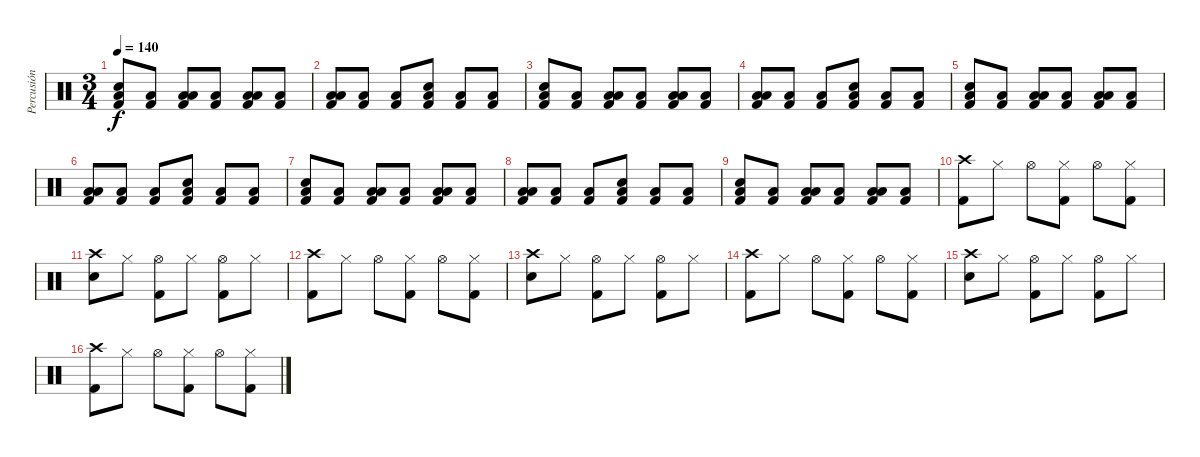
\track ("Percusión" "Percusión") {instrument percussion}
\staff {score}
\articulation defaults
\ts (3 4)
\tempo 140
\clef neutral
\ks c
("Electric Snare (hit)" "Low Floor Tom (hit)" "Kick (hit) 2").8{dy f} ("Low Floor Tom (hit)" "Kick (hit) 2").8 ("Low Tom (hit)" "Low Floor Tom (hit)" "Kick (hit) 2").8 ("Low Floor Tom (hit)" "Kick (hit) 2").8 ("Low Tom (hit)" "Low Floor Tom (hit)" "Kick (hit) 2").8 ("Low Floor Tom (hit)" "Kick (hit) 2").8 |
("Low Tom (hit)" "Low Floor Tom (hit)" "Kick (hit) 2").8 ("Low Floor Tom (hit)" "Kick (hit) 2").8 ("Low Floor Tom (hit)" "Kick (hit) 2").8 ("Electric Snare (hit)" "Low Floor Tom (hit)" "Kick (hit) 2").8 ("Low Floor Tom (hit)" "Kick (hit) 2").8 ("Low Floor Tom (hit)" "Kick (hit) 2").8 |
("Electric Snare (hit)" "Low Floor Tom (hit)" "Kick (hit) 2").8 ("Low Floor Tom (hit)" "Kick (hit) 2").8 ("Low Tom (hit)" "Low Floor Tom (hit)" "Kick (hit) 2").8 ("Low Floor Tom (hit)" "Kick (hit) 2").8 ("Low Tom (hit)" "Low Floor Tom (hit)" "Kick (hit) 2").8 ("Low Floor Tom (hit)" "Kick (hit) 2").8 |
("Low Tom (hit)" "Low Floor Tom (hit)" "Kick (hit) 2").8 ("Low Floor Tom (hit)" "Kick (hit) 2").8 ("Low Floor Tom (hit)" "Kick (hit) 2").8 ("Electric Snare (hit)" "Low Floor Tom (hit)" "Kick (hit) 2").8 ("Low Floor Tom (hit)" "Kick (hit) 2").8 ("Low Floor Tom (hit)" "Kick (hit) 2").8 |
("Electric Snare (hit)" "Low Floor Tom (hit)" "Kick (hit) 2").8 ("Low Floor Tom (hit)" "Kick (hit) 2").8 ("Low Tom (hit)" "Low Floor Tom (hit)" "Kick (hit) 2").8 ("Low Floor Tom (hit)" "Kick (hit) 2").8 ("Low Tom (hit)" "Low Floor Tom (hit)" "Kick (hit) 2").8 ("Low Floor Tom (hit)" "Kick (hit) 2").8 |
("Low Tom (hit)" "Low Floor Tom (hit)" "Kick (hit) 2").8 ("Low Floor Tom (hit)" "Kick (hit) 2").8 ("Low Floor Tom (hit)" "Kick (hit) 2").8 ("Electric Snare (hit)" "Low Floor Tom (hit)" "Kick (hit) 2").8 ("Low Floor Tom (hit)" "Kick (hit) 2").8 ("Low Floor Tom (hit)" "Kick (hit) 2").8 |
("Electric Snare (hit)" "Low Floor Tom (hit)" "Kick (hit) 2").8 ("Low Floor Tom (hit)" "Kick (hit) 2").8 ("Low Tom (hit)" "Low Floor Tom (hit)" "Kick (hit) 2").8 ("Low Floor Tom (hit)" "Kick (hit) 2").8 ("Low Tom (hit)" "Low Floor Tom (hit)" "Kick (hit) 2").8 ("Low Floor Tom (hit)" "Kick (hit) 2").8 |
("Low Tom (hit)" "Low Floor Tom (hit)" "Kick (hit) 2").8 ("Low Floor Tom (hit)" "Kick (hit) 2").8 ("Low Floor Tom (hit)" "Kick (hit) 2").8 ("Electric Snare (hit)" "Low Floor Tom (hit)" "Kick (hit) 2").8 ("Low Floor Tom (hit)" "Kick (hit) 2").8 ("Low Floor Tom (hit)" "Kick (hit) 2").8 |
("Electric Snare (hit)" "Low Floor Tom (hit)" "Kick (hit) 2").8 ("Low Floor Tom (hit)" "Kick (hit) 2").8 ("Low Tom (hit)" "Low Floor Tom (hit)" "Kick (hit) 2").8 ("Low Floor Tom (hit)" "Kick (hit) 2").8 ("Low Tom (hit)" "Low Floor Tom (hit)" "Kick (hit) 2").8 ("Low Floor Tom (hit)" "Kick (hit) 2").8 |
("Crash high (hit)" "Kick (hit) 2").8 "Hi-Hat (closed)".8 "Hi-Hat (open)".8 ("Hi-Hat (closed)" "Kick (hit) 2").8 "Hi-Hat (open)".8 ("Hi-Hat (closed)" "Kick (hit) 2").8 |
("Crash high (hit)" "Electric Snare (hit)").8 "Hi-Hat (closed)".8 ("Hi-Hat (open)" "Kick (hit) 2").8 "Hi-Hat (closed)".8 ("Hi-Hat (open)" "Kick (hit) 2").8 "Hi-Hat (closed)".8 |
("Crash high (hit)" "Kick (hit) 2").8 "Hi-Hat (closed)".8 "Hi-Hat (open)".8 ("Hi-Hat (closed)" "Kick (hit) 2").8 "Hi-Hat (open)".8 ("Hi-Hat (closed)" "Kick (hit) 2").8 |
("Crash high (hit)" "Electric Snare (hit)").8 "Hi-Hat (closed)".8 ("Hi-Hat (open)" "Kick (hit) 2").8 "Hi-Hat (closed)".8 ("Hi-Hat (open)" "Kick (hit) 2").8 "Hi-Hat (closed)".8 |
("Crash high (hit)" "Kick (hit) 2").8 "Hi-Hat (closed)".8 "Hi-Hat (open)".8 ("Hi-Hat (closed)" "Kick (hit) 2").8 "Hi-Hat (open)".8 ("Hi-Hat (closed)" "Kick (hit) 2").8 |
("Crash high (hit)" "Electric Snare (hit)").8 "Hi-Hat (closed)".8 ("Hi-Hat (open)" "Kick (hit) 2").8 "Hi-Hat (closed)".8 ("Hi-Hat (open)" "Kick (hit) 2").8 "Hi-Hat (closed)".8 |
("Crash high (hit)" "Kick (hit) 2").8 "Hi-Hat (closed)".8 "Hi-Hat (open)".8 ("Hi-Hat (closed)" "Kick (hit) 2").8 "Hi-Hat (open)".8 ("Hi-Hat (closed)" "Kick (hit) 2").8
